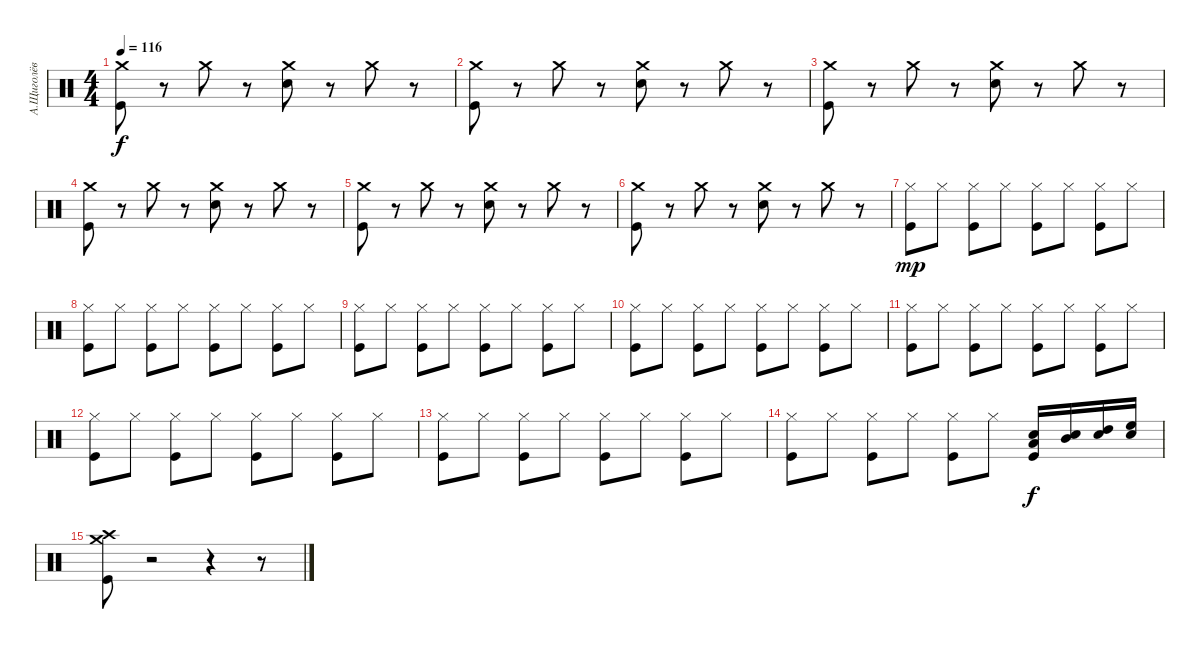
\track ("А.Щиголёв" "А.Щиголёв") {instrument percussion}
\staff {score}
\articulation defaults
\ts (4 4)
\tempo 116
\clef neutral
\ks c
("Kick (hit)" "Crash medium (hit)").8{dy f} r.8 "Crash medium (hit)".8 r.8 ("Electric Snare (hit)" "Crash medium (hit)").8 r.8 "Crash medium (hit)".8 r.8 |
("Kick (hit)" "Crash medium (hit)").8 r.8 "Crash medium (hit)".8 r.8 ("Crash medium (hit)" "Electric Snare (hit)").8 r.8 "Crash medium (hit)".8 r.8 |
("Kick (hit)" "Crash medium (hit)").8 r.8 "Crash medium (hit)".8 r.8 ("Electric Snare (hit)" "Crash medium (hit)").8 r.8 "Crash medium (hit)".8 r.8 |
("Kick (hit)" "Crash medium (hit)").8 r.8 "Crash medium (hit)".8 r.8 ("Crash medium (hit)" "Electric Snare (hit)").8 r.8 "Crash medium (hit)".8 r.8 |
("Kick (hit)" "Crash medium (hit)").8 r.8 "Crash medium (hit)".8 r.8 ("Electric Snare (hit)" "Crash medium (hit)").8 r.8 "Crash medium (hit)".8 r.8 |
("Kick (hit)" "Crash medium (hit)").8 r.8 "Crash medium (hit)".8 r.8 ("Crash medium (hit)" "Electric Snare (hit)").8 r.8 "Crash medium (hit)".8 r.8 |
("Hi-Hat (closed)" "Kick (hit)").8{dy mp} "Hi-Hat (closed)".8 ("Kick (hit)" "Hi-Hat (closed)").8 "Hi-Hat (closed)".8 ("Kick (hit)" "Hi-Hat (closed)").8 "Hi-Hat (closed)".8 ("Kick (hit)" "Hi-Hat (closed)").8 "Hi-Hat (closed)".8 |
("Hi-Hat (closed)" "Kick (hit)").8 "Hi-Hat (closed)".8 ("Kick (hit)" "Hi-Hat (closed)").8 "Hi-Hat (closed)".8 ("Kick (hit)" "Hi-Hat (closed)").8 "Hi-Hat (closed)".8 ("Kick (hit)" "Hi-Hat (closed)").8 "Hi-Hat (closed)".8 |
("Hi-Hat (closed)" "Kick (hit)").8 "Hi-Hat (closed)".8 ("Kick (hit)" "Hi-Hat (closed)").8 "Hi-Hat (closed)".8 ("Kick (hit)" "Hi-Hat (closed)").8 "Hi-Hat (closed)".8 ("Kick (hit)" "Hi-Hat (closed)").8 "Hi-Hat (closed)".8 |
("Hi-Hat (closed)" "Kick (hit)").8 "Hi-Hat (closed)".8 ("Kick (hit)" "Hi-Hat (closed)").8 "Hi-Hat (closed)".8 ("Kick (hit)" "Hi-Hat (closed)").8 "Hi-Hat (closed)".8 ("Kick (hit)" "Hi-Hat (closed)").8 "Hi-Hat (closed)".8 |
("Hi-Hat (closed)" "Kick (hit)").8 "Hi-Hat (closed)".8 ("Kick (hit)" "Hi-Hat (closed)").8 "Hi-Hat (closed)".8 ("Kick (hit)" "Hi-Hat (closed)").8 "Hi-Hat (closed)".8 ("Kick (hit)" "Hi-Hat (closed)").8 "Hi-Hat (closed)".8 |
("Hi-Hat (closed)" "Kick (hit)").8 "Hi-Hat (closed)".8 ("Kick (hit)" "Hi-Hat (closed)").8 "Hi-Hat (closed)".8 ("Kick (hit)" "Hi-Hat (closed)").8 "Hi-Hat (closed)".8 ("Kick (hit)" "Hi-Hat (closed)").8 "Hi-Hat (closed)".8 |
("Hi-Hat (closed)" "Kick (hit)").8 "Hi-Hat (closed)".8 ("Kick (hit)" "Hi-Hat (closed)").8 "Hi-Hat (closed)".8 ("Kick (hit)" "Hi-Hat (closed)").8 "Hi-Hat (closed)".8 ("Kick (hit)" "Hi-Hat (closed)").8 "Hi-Hat (closed)".8 |
("Hi-Hat (closed)" "Kick (hit)").8 "Hi-Hat (closed)".8 ("Kick (hit)" "Hi-Hat (closed)").8 "Hi-Hat (closed)".8 ("Kick (hit)" "Hi-Hat (closed)").8 "Hi-Hat (closed)".8 ("Low Tom (hit)" "Electric Snare (hit)" "Kick (hit)").16{dy f} ("Mid Tom (hit)" "Electric Snare (hit)").16 ("High Tom (hit)" "Electric Snare (hit)").16 ("High Floor Tom (hit)" "Electric Snare (hit)").16 |
("Kick (hit)" "Crash medium (hit)" "Crash high (hit)").8 r.2 r.4 r.8
